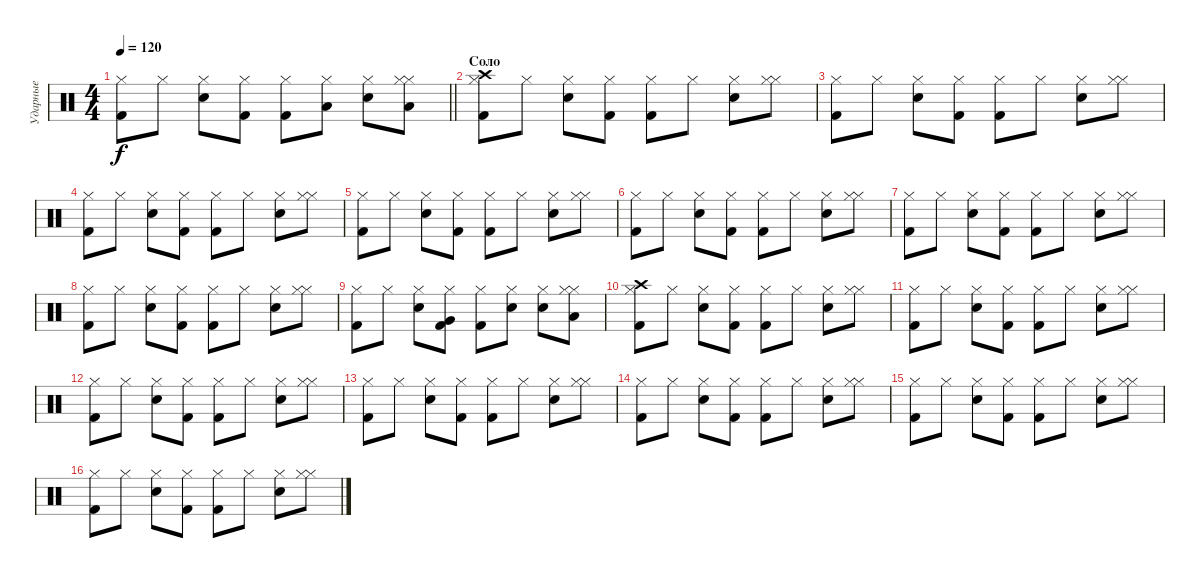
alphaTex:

\track ("Ударные" "Ударные") {instrument percussion}
\staff {score}
\articulation defaults
\ts (4 4)
\tempo 120
\clef neutral
\barLineRight lightlight
\ks c
("Kick (hit) 2" "Hi-Hat (closed)").8{dy f} "Hi-Hat (closed)".8 ("Electric Snare (hit)" "Hi-Hat (closed)").8 ("Kick (hit) 2" "Hi-Hat (closed)").8 ("Kick (hit) 2" "Hi-Hat (closed)").8 ("Low Floor Tom (hit)" "Hi-Hat (closed)").8 ("Electric Snare (hit)" "Hi-Hat (closed)").8 ("Hi-Hat (closed)" "Hi-Hat (closed)" "Low Tom (hit)").8 |
\section ("" "Соло")
("Kick (hit) 2" "Hi-Hat (closed)" "Crash high (hit)").8 "Hi-Hat (closed)".8 ("Electric Snare (hit)" "Hi-Hat (closed)").8 ("Kick (hit) 2" "Hi-Hat (closed)").8 ("Kick (hit) 2" "Hi-Hat (closed)").8 "Hi-Hat (closed)".8 ("Electric Snare (hit)" "Hi-Hat (closed)").8 ("Hi-Hat (closed)" "Hi-Hat (closed)").8 |
("Kick (hit) 2" "Hi-Hat (closed)").8 "Hi-Hat (closed)".8 ("Electric Snare (hit)" "Hi-Hat (closed)").8 ("Kick (hit) 2" "Hi-Hat (closed)").8 ("Kick (hit) 2" "Hi-Hat (closed)").8 "Hi-Hat (closed)".8 ("Electric Snare (hit)" "Hi-Hat (closed)").8 ("Hi-Hat (closed)" "Hi-Hat (closed)").8 |
("Kick (hit) 2" "Hi-Hat (closed)").8 "Hi-Hat (closed)".8 ("Electric Snare (hit)" "Hi-Hat (closed)").8 ("Kick (hit) 2" "Hi-Hat (closed)").8 ("Kick (hit) 2" "Hi-Hat (closed)").8 "Hi-Hat (closed)".8 ("Electric Snare (hit)" "Hi-Hat (closed)").8 ("Hi-Hat (closed)" "Hi-Hat (closed)").8 |
("Kick (hit) 2" "Hi-Hat (closed)").8 "Hi-Hat (closed)".8 ("Electric Snare (hit)" "Hi-Hat (closed)").8 ("Kick (hit) 2" "Hi-Hat (closed)").8 ("Kick (hit) 2" "Hi-Hat (closed)").8 "Hi-Hat (closed)".8 ("Electric Snare (hit)" "Hi-Hat (closed)").8 ("Hi-Hat (closed)" "Hi-Hat (closed)").8 |
("Kick (hit) 2" "Hi-Hat (closed)").8 "Hi-Hat (closed)".8 ("Electric Snare (hit)" "Hi-Hat (closed)").8 ("Kick (hit) 2" "Hi-Hat (closed)").8 ("Kick (hit) 2" "Hi-Hat (closed)").8 "Hi-Hat (closed)".8 ("Electric Snare (hit)" "Hi-Hat (closed)").8 ("Hi-Hat (closed)" "Hi-Hat (closed)").8 |
("Kick (hit) 2" "Hi-Hat (closed)").8 "Hi-Hat (closed)".8 ("Electric Snare (hit)" "Hi-Hat (closed)").8 ("Kick (hit) 2" "Hi-Hat (closed)").8 ("Kick (hit) 2" "Hi-Hat (closed)").8 "Hi-Hat (closed)".8 ("Electric Snare (hit)" "Hi-Hat (closed)").8 ("Hi-Hat (closed)" "Hi-Hat (closed)").8 |
("Kick (hit) 2" "Hi-Hat (closed)").8 "Hi-Hat (closed)".8 ("Electric Snare (hit)" "Hi-Hat (closed)").8 ("Kick (hit) 2" "Hi-Hat (closed)").8 ("Kick (hit) 2" "Hi-Hat (closed)").8 "Hi-Hat (closed)".8 ("Electric Snare (hit)" "Hi-Hat (closed)").8 ("Hi-Hat (closed)" "Hi-Hat (closed)").8 |
("Kick (hit) 2" "Hi-Hat (closed)").8 "Hi-Hat (closed)".8 ("Electric Snare (hit)" "Hi-Hat (closed)").8 ("Kick (hit) 2" "Hi-Hat (closed)" "Very Low Tom (hit)").8 ("Kick (hit) 2" "Hi-Hat (closed)").8 ("Electric Snare (hit)" "Hi-Hat (closed)").8 ("Electric Snare (hit)" "Hi-Hat (closed)").8 ("Hi-Hat (closed)" "Hi-Hat (closed)" "Low Tom (hit)").8 |
("Kick (hit) 2" "Hi-Hat (closed)" "Crash high (hit)").8 "Hi-Hat (closed)".8 ("Electric Snare (hit)" "Hi-Hat (closed)").8 ("Kick (hit) 2" "Hi-Hat (closed)").8 ("Kick (hit) 2" "Hi-Hat (closed)").8 "Hi-Hat (closed)".8 ("Electric Snare (hit)" "Hi-Hat (closed)").8 ("Hi-Hat (closed)" "Hi-Hat (closed)").8 |
("Kick (hit) 2" "Hi-Hat (closed)").8 "Hi-Hat (closed)".8 ("Electric Snare (hit)" "Hi-Hat (closed)").8 ("Kick (hit) 2" "Hi-Hat (closed)").8 ("Kick (hit) 2" "Hi-Hat (closed)").8 "Hi-Hat (closed)".8 ("Electric Snare (hit)" "Hi-Hat (closed)").8 ("Hi-Hat (closed)" "Hi-Hat (closed)").8 |
("Kick (hit) 2" "Hi-Hat (closed)").8 "Hi-Hat (closed)".8 ("Electric Snare (hit)" "Hi-Hat (closed)").8 ("Kick (hit) 2" "Hi-Hat (closed)").8 ("Kick (hit) 2" "Hi-Hat (closed)").8 "Hi-Hat (closed)".8 ("Electric Snare (hit)" "Hi-Hat (closed)").8 ("Hi-Hat (closed)" "Hi-Hat (closed)").8 |
("Kick (hit) 2" "Hi-Hat (closed)").8 "Hi-Hat (closed)".8 ("Electric Snare (hit)" "Hi-Hat (closed)").8 ("Kick (hit) 2" "Hi-Hat (closed)").8 ("Kick (hit) 2" "Hi-Hat (closed)").8 "Hi-Hat (closed)".8 ("Electric Snare (hit)" "Hi-Hat (closed)").8 ("Hi-Hat (closed)" "Hi-Hat (closed)").8 |
("Kick (hit) 2" "Hi-Hat (closed)").8 "Hi-Hat (closed)".8 ("Electric Snare (hit)" "Hi-Hat (closed)").8 ("Kick (hit) 2" "Hi-Hat (closed)").8 ("Kick (hit) 2" "Hi-Hat (closed)").8 "Hi-Hat (closed)".8 ("Electric Snare (hit)" "Hi-Hat (closed)").8 ("Hi-Hat (closed)" "Hi-Hat (closed)").8 |
("Kick (hit) 2" "Hi-Hat (closed)").8 "Hi-Hat (closed)".8 ("Electric Snare (hit)" "Hi-Hat (closed)").8 ("Kick (hit) 2" "Hi-Hat (closed)").8 ("Kick (hit) 2" "Hi-Hat (closed)").8 "Hi-Hat (closed)".8 ("Electric Snare (hit)" "Hi-Hat (closed)").8 ("Hi-Hat (closed)" "Hi-Hat (closed)").8 |
("Kick (hit) 2" "Hi-Hat (closed)").8 "Hi-Hat (closed)".8 ("Electric Snare (hit)" "Hi-Hat (closed)").8 ("Kick (hit) 2" "Hi-Hat (closed)").8 ("Kick (hit) 2" "Hi-Hat (closed)").8 "Hi-Hat (closed)".8 ("Electric Snare (hit)" "Hi-Hat (closed)").8 ("Hi-Hat (closed)" "Hi-Hat (closed)").8
